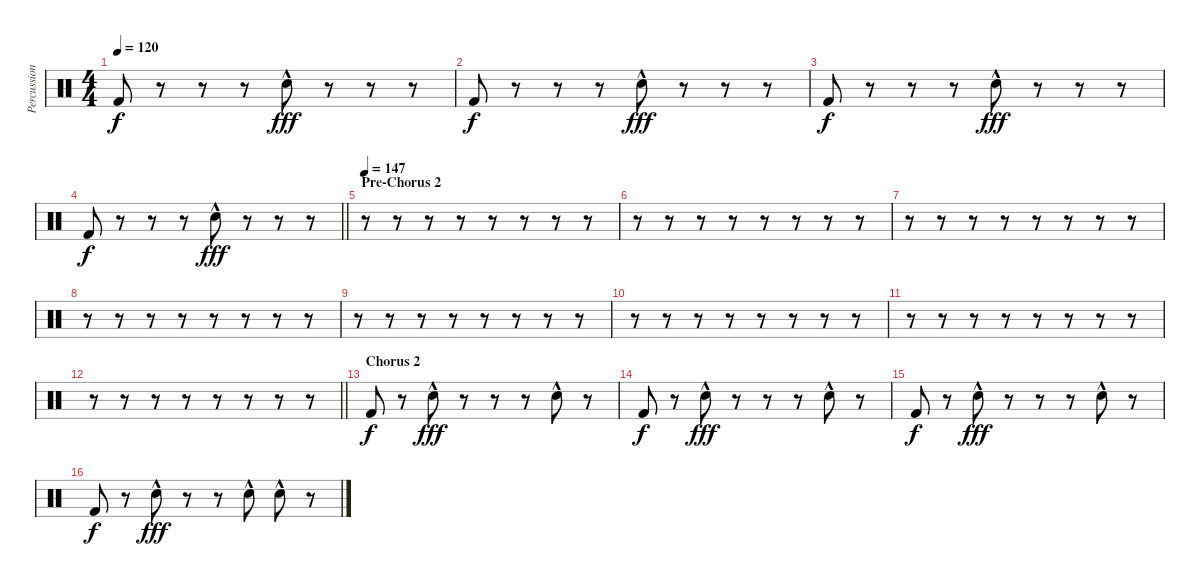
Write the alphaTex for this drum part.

\track ("Percussion" "Percussion") {instrument percussion}
\staff {score}
\articulation defaults
\ts (4 4)
\tempo 120
\clef neutral
\ks c "Kick (hit) 2".8{dy f}
r.8 r.8 r.8 "Snare (hit) 2"{hac}.8{dy fff} r.8 r.8 r.8 |
"Kick (hit) 2".8{dy f} r.8 r.8 r.8 "Snare (hit) 2"{hac}.8{dy fff} r.8 r.8 r.8 |
"Kick (hit) 2".8{dy f} r.8 r.8 r.8 "Snare (hit) 2"{hac}.8{dy fff} r.8 r.8 r.8 |
\barLineRight lightlight "Kick (hit) 2".8{dy f}
r.8 r.8 r.8 "Snare (hit) 2"{hac}.8{dy fff} r.8 r.8 r.8 |
\section ("" "Pre-Chorus 2")
\tempo 147
r.8 r.8 r.8 r.8 r.8 r.8 r.8 r.8 |
r.8 r.8 r.8 r.8 r.8 r.8 r.8 r.8 |
r.8 r.8 r.8 r.8 r.8 r.8 r.8 r.8 |
r.8 r.8 r.8 r.8 r.8 r.8 r.8 r.8 |
r.8 r.8 r.8 r.8 r.8 r.8 r.8 r.8 |
r.8 r.8 r.8 r.8 r.8 r.8 r.8 r.8 |
r.8 r.8 r.8 r.8 r.8 r.8 r.8 r.8 |
\barLineRight lightlight
r.8 r.8 r.8 r.8 r.8 r.8 r.8 r.8 |
\section ("" "Chorus 2")
"Kick (hit) 2".8{dy f} r.8 "Snare (hit) 2"{hac}.8{dy fff} r.8 r.8 r.8 "Snare (hit) 2"{hac}.8 r.8 |
"Kick (hit) 2".8{dy f} r.8 "Snare (hit) 2"{hac}.8{dy fff} r.8 r.8 r.8 "Snare (hit) 2"{hac}.8 r.8 |
"Kick (hit) 2".8{dy f} r.8 "Snare (hit) 2"{hac}.8{dy fff} r.8 r.8 r.8 "Snare (hit) 2"{hac}.8 r.8 |
"Kick (hit) 2".8{dy f} r.8 "Snare (hit) 2"{hac}.8{dy fff} r.8 r.8 "Snare (hit) 2"{hac}.8 "Snare (hit) 2"{hac}.8 r.8
